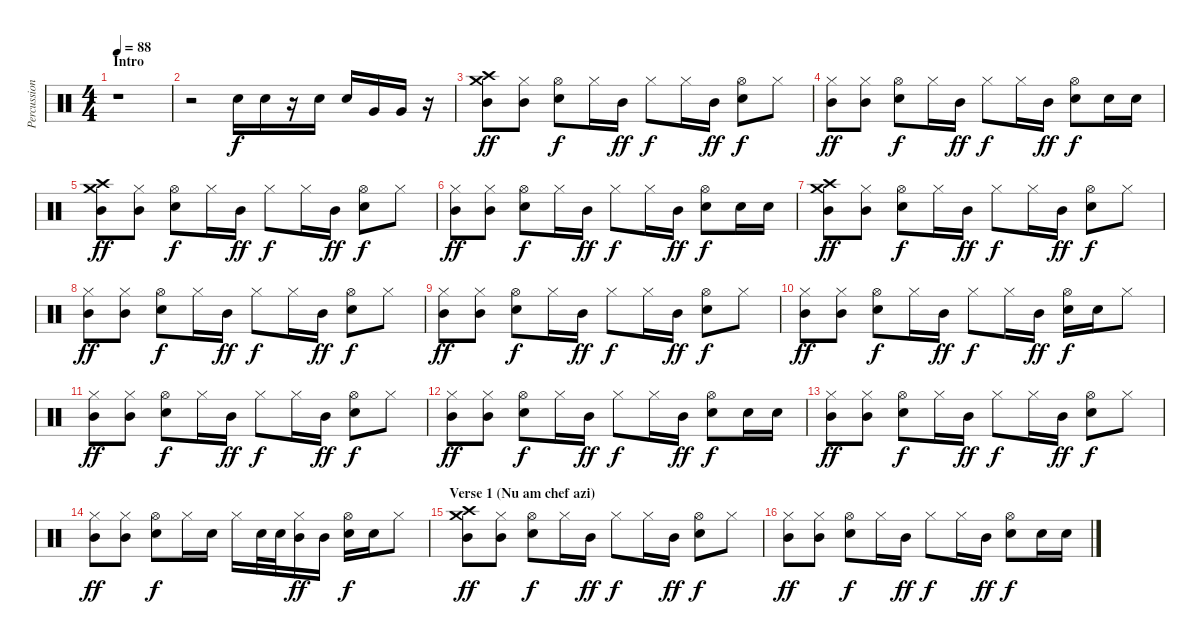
\track ("Percussion" "Percussion") {instrument percussion}
\staff {score}
\articulation defaults
\ts (4 4)
\section ("" "Intro")
\tempo 88
\clef neutral
\ks c
r.1{dy f} |
r.2 "Metronome (bell)".16 "Metronome (bell)".16 r.16 "Metronome (bell)".16 "Metronome (bell)".16 "Very Low Tom (hit)".16 "Very Low Tom (hit)".16 r.16 |
("Crash medium (hit)" "Crash high (hit)" "Mid Tom (hit)").8{dy ff} ("Hi-Hat (closed)" "Mid Tom (hit)").8 ("Hi-Hat (open)" "Electric Snare (hit)").8{dy f} "Hi-Hat (closed)".16 "Mid Tom (hit)".16{dy ff} "Hi-Hat (closed)".8{dy f} "Hi-Hat (closed)".16 "Mid Tom (hit)".16{dy ff} ("Hi-Hat (open)" "Electric Snare (hit)").8{dy f} "Hi-Hat (closed)".8 |
("Hi-Hat (closed)" "Mid Tom (hit)").8{dy ff} ("Hi-Hat (closed)" "Mid Tom (hit)").8 ("Hi-Hat (open)" "Electric Snare (hit)").8{dy f} "Hi-Hat (closed)".16 "Mid Tom (hit)".16{dy ff} "Hi-Hat (closed)".8{dy f} "Hi-Hat (closed)".16 "Mid Tom (hit)".16{dy ff} ("Hi-Hat (open)" "Electric Snare (hit)").8{dy f} "Metronome (bell)".16 "Metronome (bell)".16 |
("Crash medium (hit)" "Crash high (hit)" "Mid Tom (hit)").8{dy ff} ("Hi-Hat (closed)" "Mid Tom (hit)").8 ("Hi-Hat (open)" "Electric Snare (hit)").8{dy f} "Hi-Hat (closed)".16 "Mid Tom (hit)".16{dy ff} "Hi-Hat (closed)".8{dy f} "Hi-Hat (closed)".16 "Mid Tom (hit)".16{dy ff} ("Hi-Hat (open)" "Electric Snare (hit)").8{dy f} "Hi-Hat (closed)".8 |
("Hi-Hat (closed)" "Mid Tom (hit)").8{dy ff} ("Hi-Hat (closed)" "Mid Tom (hit)").8 ("Hi-Hat (open)" "Electric Snare (hit)").8{dy f} "Hi-Hat (closed)".16 "Mid Tom (hit)".16{dy ff} "Hi-Hat (closed)".8{dy f} "Hi-Hat (closed)".16 "Mid Tom (hit)".16{dy ff} ("Hi-Hat (open)" "Electric Snare (hit)").8{dy f} "Metronome (bell)".16 "Metronome (bell)".16 |
("Crash medium (hit)" "Crash high (hit)" "Mid Tom (hit)").8{dy ff} ("Hi-Hat (closed)" "Mid Tom (hit)").8 ("Hi-Hat (open)" "Electric Snare (hit)").8{dy f} "Hi-Hat (closed)".16 "Mid Tom (hit)".16{dy ff} "Hi-Hat (closed)".8{dy f} "Hi-Hat (closed)".16 "Mid Tom (hit)".16{dy ff} ("Hi-Hat (open)" "Electric Snare (hit)").8{dy f} "Hi-Hat (closed)".8 |
("Hi-Hat (closed)" "Mid Tom (hit)").8{dy ff} ("Hi-Hat (closed)" "Mid Tom (hit)").8 ("Hi-Hat (open)" "Electric Snare (hit)").8{dy f} "Hi-Hat (closed)".16 "Mid Tom (hit)".16{dy ff} "Hi-Hat (closed)".8{dy f} "Hi-Hat (closed)".16 "Mid Tom (hit)".16{dy ff} ("Hi-Hat (open)" "Electric Snare (hit)").8{dy f} "Hi-Hat (closed)".8 |
("Hi-Hat (closed)" "Mid Tom (hit)").8{dy ff} ("Hi-Hat (closed)" "Mid Tom (hit)").8 ("Hi-Hat (open)" "Electric Snare (hit)").8{dy f} "Hi-Hat (closed)".16 "Mid Tom (hit)".16{dy ff} "Hi-Hat (closed)".8{dy f} "Hi-Hat (closed)".16 "Mid Tom (hit)".16{dy ff} ("Hi-Hat (open)" "Electric Snare (hit)").8{dy f} "Hi-Hat (closed)".8 |
("Hi-Hat (closed)" "Mid Tom (hit)").8{dy ff} ("Hi-Hat (closed)" "Mid Tom (hit)").8 ("Hi-Hat (open)" "Electric Snare (hit)").8{dy f} "Hi-Hat (closed)".16 "Mid Tom (hit)".16{dy ff} "Hi-Hat (closed)".8{dy f} "Hi-Hat (closed)".16 "Mid Tom (hit)".16{dy ff} ("Hi-Hat (open)" "Electric Snare (hit)").16{dy f} "Electric Snare (hit)".16 "Hi-Hat (closed)".8 |
("Hi-Hat (closed)" "Mid Tom (hit)").8{dy ff} ("Hi-Hat (closed)" "Mid Tom (hit)").8 ("Hi-Hat (open)" "Electric Snare (hit)").8{dy f} "Hi-Hat (closed)".16 "Mid Tom (hit)".16{dy ff} "Hi-Hat (closed)".8{dy f} "Hi-Hat (closed)".16 "Mid Tom (hit)".16{dy ff} ("Hi-Hat (open)" "Electric Snare (hit)").8{dy f} "Hi-Hat (closed)".8 |
("Hi-Hat (closed)" "Mid Tom (hit)").8{dy ff} ("Hi-Hat (closed)" "Mid Tom (hit)").8 ("Hi-Hat (open)" "Electric Snare (hit)").8{dy f} "Hi-Hat (closed)".16 "Mid Tom (hit)".16{dy ff} "Hi-Hat (closed)".8{dy f} "Hi-Hat (closed)".16 "Mid Tom (hit)".16{dy ff} ("Hi-Hat (open)" "Electric Snare (hit)").8{dy f} "Metronome (bell)".16 "Metronome (bell)".16 |
("Hi-Hat (closed)" "Mid Tom (hit)").8{dy ff} ("Hi-Hat (closed)" "Mid Tom (hit)").8 ("Hi-Hat (open)" "Electric Snare (hit)").8{dy f} "Hi-Hat (closed)".16 "Mid Tom (hit)".16{dy ff} "Hi-Hat (closed)".8{dy f} "Hi-Hat (closed)".16 "Mid Tom (hit)".16{dy ff} ("Hi-Hat (open)" "Electric Snare (hit)").8{dy f} "Hi-Hat (closed)".8 |
("Hi-Hat (closed)" "Mid Tom (hit)").8{dy ff} ("Hi-Hat (closed)" "Mid Tom (hit)").8 ("Hi-Hat (open)" "Electric Snare (hit)").8{dy f} "Hi-Hat (closed)".16 "Electric Snare (hit)".16 "Hi-Hat (closed)".16 "Snare (hit) 2".32 "Snare (hit) 2".32 ("Hi-Hat (closed)" "Mid Tom (hit)").16{dy ff} "Mid Tom (hit)".16 ("Hi-Hat (open)" "Electric Snare (hit)").16{dy f} "Electric Snare (hit)".16 "Hi-Hat (closed)".8 |
\section ("" "Verse 1 (Nu am chef azi)")
("Crash medium (hit)" "Crash high (hit)" "Mid Tom (hit)").8{dy ff} ("Hi-Hat (closed)" "Mid Tom (hit)").8 ("Hi-Hat (open)" "Electric Snare (hit)").8{dy f} "Hi-Hat (closed)".16 "Mid Tom (hit)".16{dy ff} "Hi-Hat (closed)".8{dy f} "Hi-Hat (closed)".16 "Mid Tom (hit)".16{dy ff} ("Hi-Hat (open)" "Electric Snare (hit)").8{dy f} "Hi-Hat (closed)".8 |
("Hi-Hat (closed)" "Mid Tom (hit)").8{dy ff} ("Hi-Hat (closed)" "Mid Tom (hit)").8 ("Hi-Hat (open)" "Electric Snare (hit)").8{dy f} "Hi-Hat (closed)".16 "Mid Tom (hit)".16{dy ff} "Hi-Hat (closed)".8{dy f} "Hi-Hat (closed)".16 "Mid Tom (hit)".16{dy ff} ("Hi-Hat (open)" "Electric Snare (hit)").8{dy f} "Metronome (bell)".16 "Metronome (bell)".16
